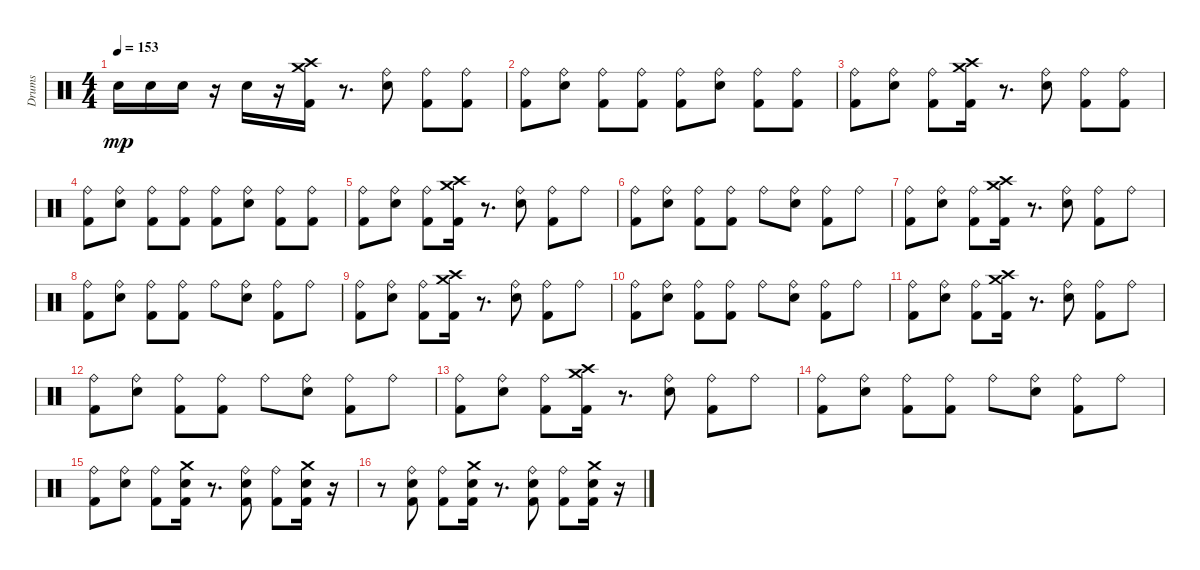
\track ("Drums" "Drums") {instrument percussion}
\staff {score}
\articulation defaults
\ts (4 4)
\tempo 153
\clef neutral
\ks c "Electric Snare (hit)".16{dy mp} "Electric Snare (hit)".16 "Electric Snare (hit)".16
r.16 "Electric Snare (hit)".16 r.16 ("Crash high (hit)" "Kick (hit) 2" "Crash medium (hit)").16 r.8{d} ("Electric Snare (hit)" "Ride (bell)").8 ("Kick (hit) 2" "Ride (bell)").8 ("Kick (hit) 2" "Ride (bell)").8 |
("Kick (hit) 2" "Ride (bell)").8 ("Electric Snare (hit)" "Ride (bell)").8 ("Kick (hit) 2" "Ride (bell)").8 ("Kick (hit) 2" "Ride (bell)").8 ("Kick (hit) 2" "Ride (bell)").8 ("Electric Snare (hit)" "Ride (bell)").8 ("Kick (hit) 2" "Ride (bell)").8 ("Kick (hit) 2" "Ride (bell)").8 |
("Kick (hit) 2" "Ride (bell)").8 ("Electric Snare (hit)" "Ride (bell)").8 ("Kick (hit) 2" "Ride (bell)").8 ("Kick (hit) 2" "Crash high (hit)" "Crash medium (hit)").16 r.8{d} ("Electric Snare (hit)" "Ride (bell)").8 ("Kick (hit) 2" "Ride (bell)").8 ("Kick (hit) 2" "Ride (bell)").8 |
("Kick (hit) 2" "Ride (bell)").8 ("Electric Snare (hit)" "Ride (bell)").8 ("Kick (hit) 2" "Ride (bell)").8 ("Kick (hit) 2" "Ride (bell)").8 ("Kick (hit) 2" "Ride (bell)").8 ("Electric Snare (hit)" "Ride (bell)").8 ("Kick (hit) 2" "Ride (bell)").8 ("Kick (hit) 2" "Ride (bell)").8 |
("Kick (hit) 2" "Ride (bell)").8 ("Electric Snare (hit)" "Ride (bell)").8 ("Kick (hit) 2" "Ride (bell)").8 ("Crash high (hit)" "Crash medium (hit)" "Kick (hit) 2").16 r.8{d} ("Electric Snare (hit)" "Ride (bell)").8 ("Kick (hit) 2" "Ride (bell)").8 "Ride (bell)".8 |
("Kick (hit) 2" "Ride (bell)").8 ("Electric Snare (hit)" "Ride (bell)").8 ("Kick (hit) 2" "Ride (bell)").8 ("Kick (hit) 2" "Ride (bell)").8 "Ride (bell)".8 ("Electric Snare (hit)" "Ride (bell)").8 ("Kick (hit) 2" "Ride (bell)").8 "Ride (bell)".8 |
("Kick (hit) 2" "Ride (bell)").8 ("Electric Snare (hit)" "Ride (bell)").8 ("Kick (hit) 2" "Ride (bell)").8 ("Crash high (hit)" "Crash medium (hit)" "Kick (hit) 2").16 r.8{d} ("Electric Snare (hit)" "Ride (bell)").8 ("Kick (hit) 2" "Ride (bell)").8 "Ride (bell)".8 |
("Kick (hit) 2" "Ride (bell)").8 ("Electric Snare (hit)" "Ride (bell)").8 ("Kick (hit) 2" "Ride (bell)").8 ("Kick (hit) 2" "Ride (bell)").8 "Ride (bell)".8 ("Electric Snare (hit)" "Ride (bell)").8 ("Kick (hit) 2" "Ride (bell)").8 "Ride (bell)".8 |
("Kick (hit) 2" "Ride (bell)").8 ("Electric Snare (hit)" "Ride (bell)").8 ("Kick (hit) 2" "Ride (bell)").8 ("Crash medium (hit)" "Crash high (hit)" "Kick (hit) 2").16 r.8{d} ("Electric Snare (hit)" "Ride (bell)").8 ("Kick (hit) 2" "Ride (bell)").8 "Ride (bell)".8 |
("Kick (hit) 2" "Ride (bell)").8 ("Electric Snare (hit)" "Ride (bell)").8 ("Kick (hit) 2" "Ride (bell)").8 ("Kick (hit) 2" "Ride (bell)").8 "Ride (bell)".8 ("Electric Snare (hit)" "Ride (bell)").8 ("Kick (hit) 2" "Ride (bell)").8 "Ride (bell)".8 |
("Kick (hit) 2" "Ride (bell)").8 ("Electric Snare (hit)" "Ride (bell)").8 ("Kick (hit) 2" "Ride (bell)").8 ("Crash medium (hit)" "Crash high (hit)" "Kick (hit) 2").16 r.8{d} ("Electric Snare (hit)" "Ride (bell)").8 ("Kick (hit) 2" "Ride (bell)").8 "Ride (bell)".8 |
("Kick (hit) 2" "Ride (bell)").8 ("Electric Snare (hit)" "Ride (bell)").8 ("Kick (hit) 2" "Ride (bell)").8 ("Kick (hit) 2" "Ride (bell)").8 "Ride (bell)".8 ("Electric Snare (hit)" "Ride (bell)").8 ("Kick (hit) 2" "Ride (bell)").8 "Ride (bell)".8 |
("Kick (hit) 2" "Ride (bell)").8 ("Electric Snare (hit)" "Ride (bell)").8 ("Kick (hit) 2" "Ride (bell)").8 ("Crash medium (hit)" "Crash high (hit)" "Kick (hit) 2").16 r.8{d} ("Electric Snare (hit)" "Ride (bell)").8 ("Kick (hit) 2" "Ride (bell)").8 "Ride (bell)".8 |
("Kick (hit) 2" "Ride (bell)").8 ("Electric Snare (hit)" "Ride (bell)").8 ("Kick (hit) 2" "Ride (bell)").8 ("Kick (hit) 2" "Ride (bell)").8 "Ride (bell)".8 ("Electric Snare (hit)" "Ride (bell)").8 ("Kick (hit) 2" "Ride (bell)").8 "Ride (bell)".8 |
("Kick (hit) 2" "Ride (bell)").8 ("Electric Snare (hit)" "Ride (bell)").8 ("Kick (hit) 2" "Ride (bell)").8 ("Kick (hit) 2" "Crash medium (hit)" "Electric Snare (hit)").16 r.8{d} ("Kick (hit) 2" "Electric Snare (hit)" "Ride (bell)").8 ("Kick (hit) 2" "Ride (bell)").8 ("Electric Snare (hit)" "Crash medium (hit)" "Kick (hit) 2").16 r.16 |
r.8 ("Kick (hit) 2" "Electric Snare (hit)" "Ride (bell)").8 ("Kick (hit) 2" "Ride (bell)").8 ("Crash medium (hit)" "Electric Snare (hit)" "Kick (hit) 2").16 r.8{d} ("Electric Snare (hit)" "Kick (hit) 2" "Ride (bell)").8 ("Kick (hit) 2" "Ride (bell)").8 ("Electric Snare (hit)" "Crash medium (hit)" "Kick (hit) 2").16 r.16
